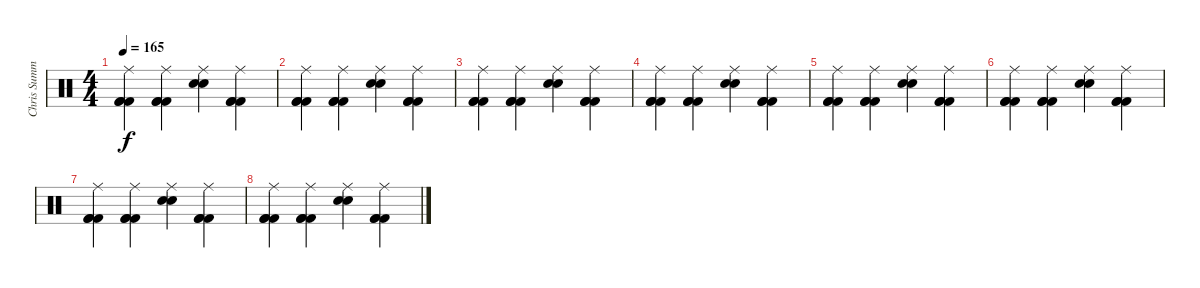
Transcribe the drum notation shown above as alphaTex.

\track ("Chris Summers" "Chris Summ") {instrument percussion}
\staff {score}
\articulation defaults
\ts (4 4)
\tempo 165
\clef neutral
\ks c
("Kick (hit) 2" "Kick (hit) 2" "Kick (hit) 2" "Ride (middle)").4{dy f} ("Kick (hit) 2" "Kick (hit) 2" "Kick (hit) 2" "Ride (middle)").4 ("Electric Snare (hit)" "Hand Clap (hit)" "Ride (middle)").4 ("Kick (hit) 2" "Kick (hit) 2" "Kick (hit) 2" "Ride (middle)").4 |
("Kick (hit) 2" "Kick (hit) 2" "Kick (hit) 2" "Ride (middle)").4 ("Kick (hit) 2" "Kick (hit) 2" "Kick (hit) 2" "Ride (middle)").4 ("Electric Snare (hit)" "Hand Clap (hit)" "Ride (middle)").4 ("Kick (hit) 2" "Kick (hit) 2" "Kick (hit) 2" "Ride (middle)").4 |
("Kick (hit) 2" "Kick (hit) 2" "Kick (hit) 2" "Ride (middle)").4 ("Kick (hit) 2" "Kick (hit) 2" "Kick (hit) 2" "Ride (middle)").4 ("Electric Snare (hit)" "Hand Clap (hit)" "Ride (middle)").4 ("Kick (hit) 2" "Kick (hit) 2" "Kick (hit) 2" "Ride (middle)").4 |
("Kick (hit) 2" "Kick (hit) 2" "Kick (hit) 2" "Ride (middle)").4 ("Kick (hit) 2" "Kick (hit) 2" "Kick (hit) 2" "Ride (middle)").4 ("Electric Snare (hit)" "Hand Clap (hit)" "Ride (middle)").4 ("Kick (hit) 2" "Kick (hit) 2" "Kick (hit) 2" "Ride (middle)").4 |
("Kick (hit) 2" "Kick (hit) 2" "Kick (hit) 2" "Ride (middle)").4 ("Kick (hit) 2" "Kick (hit) 2" "Kick (hit) 2" "Ride (middle)").4 ("Electric Snare (hit)" "Hand Clap (hit)" "Ride (middle)").4 ("Kick (hit) 2" "Kick (hit) 2" "Kick (hit) 2" "Ride (middle)").4 |
("Kick (hit) 2" "Kick (hit) 2" "Kick (hit) 2" "Ride (middle)").4 ("Kick (hit) 2" "Kick (hit) 2" "Kick (hit) 2" "Ride (middle)").4 ("Electric Snare (hit)" "Hand Clap (hit)" "Ride (middle)").4 ("Kick (hit) 2" "Kick (hit) 2" "Kick (hit) 2" "Ride (middle)").4 |
("Kick (hit) 2" "Kick (hit) 2" "Kick (hit) 2" "Ride (middle)").4 ("Kick (hit) 2" "Kick (hit) 2" "Kick (hit) 2" "Ride (middle)").4 ("Electric Snare (hit)" "Hand Clap (hit)" "Ride (middle)").4 ("Kick (hit) 2" "Kick (hit) 2" "Kick (hit) 2" "Ride (middle)").4 |
("Kick (hit) 2" "Kick (hit) 2" "Kick (hit) 2" "Ride (middle)").4 ("Kick (hit) 2" "Kick (hit) 2" "Kick (hit) 2" "Ride (middle)").4 ("Electric Snare (hit)" "Hand Clap (hit)" "Ride (middle)").4 ("Kick (hit) 2" "Kick (hit) 2" "Kick (hit) 2" "Ride (middle)").4
